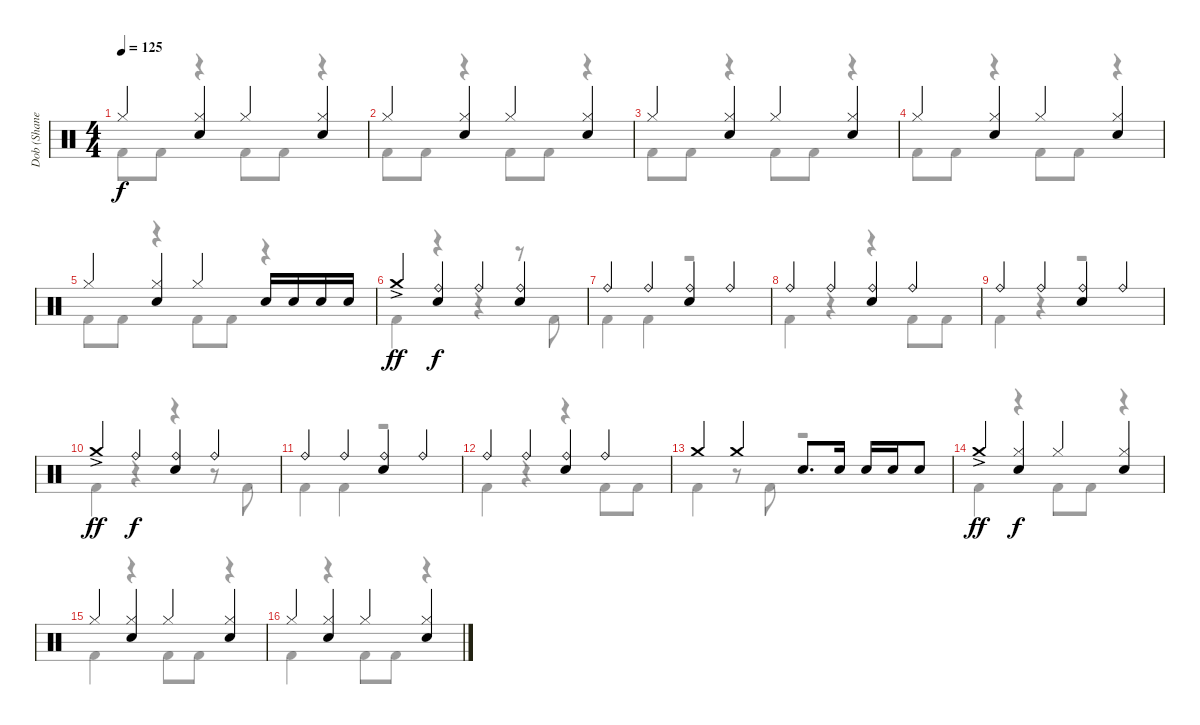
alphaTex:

\track ("Dob (Shane Gaalaas)" "Dob (Shane") {instrument percussion}
\staff {score}
\articulation defaults
\voice
\ts (4 4)
\tempo 125
\clef neutral
\ks c "Hi-Hat (closed)".4{dy f}
("Hi-Hat (closed)" "Electric Snare (hit)").4 "Hi-Hat (closed)".4 ("Hi-Hat (closed)" "Electric Snare (hit)").4 |
"Hi-Hat (closed)".4 ("Hi-Hat (closed)" "Electric Snare (hit)").4 "Hi-Hat (closed)".4 ("Hi-Hat (closed)" "Electric Snare (hit)").4 |
"Hi-Hat (closed)".4 ("Hi-Hat (closed)" "Electric Snare (hit)").4 "Hi-Hat (closed)".4 ("Hi-Hat (closed)" "Electric Snare (hit)").4 |
"Hi-Hat (closed)".4 ("Hi-Hat (closed)" "Electric Snare (hit)").4 "Hi-Hat (closed)".4 ("Hi-Hat (closed)" "Electric Snare (hit)").4 |
"Hi-Hat (closed)".4 ("Hi-Hat (closed)" "Electric Snare (hit)").4 "Hi-Hat (closed)".4 "Electric Snare (hit)".16 "Electric Snare (hit)".16 "Electric Snare (hit)".16 "Electric Snare (hit)".16 |
"Crash medium (hit)"{ac}.4{dy ff} ("Ride (bell)" "Electric Snare (hit)").4{dy f} "Ride (bell)".4 ("Ride (bell)" "Electric Snare (hit)").4 |
"Ride (bell)".4 "Ride (bell)".4 ("Ride (bell)" "Electric Snare (hit)").4 "Ride (bell)".4 |
"Ride (bell)".4 "Ride (bell)".4 ("Ride (bell)" "Electric Snare (hit)").4 "Ride (bell)".4 |
"Ride (bell)".4 "Ride (bell)".4 ("Ride (bell)" "Electric Snare (hit)").4 "Ride (bell)".4 |
"Crash medium (hit)"{ac}.4{dy ff} "Ride (bell)".4{dy f} ("Ride (bell)" "Electric Snare (hit)").4 "Ride (bell)".4 |
"Ride (bell)".4 "Ride (bell)".4 ("Ride (bell)" "Electric Snare (hit)").4 "Ride (bell)".4 |
"Ride (bell)".4 "Ride (bell)".4 ("Ride (bell)" "Electric Snare (hit)").4 "Ride (bell)".4 |
"Crash medium (hit)".4 "Crash medium (hit)".4 "Electric Snare (hit)".8{d} "Electric Snare (hit)".16 "Electric Snare (hit)".16 "Electric Snare (hit)".16 "Electric Snare (hit)".8 |
"Crash medium (hit)"{ac}.4{dy ff} ("Hi-Hat (closed)" "Electric Snare (hit)").4{dy f} "Hi-Hat (closed)".4 ("Hi-Hat (closed)" "Electric Snare (hit)").4 |
"Hi-Hat (closed)".4 ("Hi-Hat (closed)" "Electric Snare (hit)").4 "Hi-Hat (closed)".4 ("Hi-Hat (closed)" "Electric Snare (hit)").4 |
"Hi-Hat (closed)".4 ("Hi-Hat (closed)" "Electric Snare (hit)").4 "Hi-Hat (closed)".4 ("Hi-Hat (closed)" "Electric Snare (hit)").4
\voice
\clef neutral
\ottava regular
\simile none
\ks c "Kick (hit) 2".8{dy f} "Kick (hit) 2".8
r.4 "Kick (hit) 2".8 "Kick (hit) 2".8 r.4 |
"Kick (hit) 2".8 "Kick (hit) 2".8 r.4 "Kick (hit) 2".8 "Kick (hit) 2".8 r.4 |
"Kick (hit) 2".8 "Kick (hit) 2".8 r.4 "Kick (hit) 2".8 "Kick (hit) 2".8 r.4 |
"Kick (hit) 2".8 "Kick (hit) 2".8 r.4 "Kick (hit) 2".8 "Kick (hit) 2".8 r.4 |
"Kick (hit) 2".8 "Kick (hit) 2".8 r.4 "Kick (hit) 2".8 "Kick (hit) 2".8 r.4 |
"Kick (hit) 2".4 r.4 r.4 r.8 "Kick (hit) 2".8 |
"Kick (hit) 2".4 "Kick (hit) 2".4 r.2 |
"Kick (hit) 2".4 r.4 r.4 "Kick (hit) 2".8 "Kick (hit) 2".8 |
"Kick (hit) 2".4 r.4 r.2 |
"Kick (hit) 2".4 r.4 r.4 r.8 "Kick (hit) 2".8 |
"Kick (hit) 2".4 "Kick (hit) 2".4 r.2 |
"Kick (hit) 2".4 r.4 r.4 "Kick (hit) 2".8 "Kick (hit) 2".8 |
"Kick (hit) 2".4 r.8 "Kick (hit) 2".8 r.2 |
"Kick (hit) 2".4 r.4 "Kick (hit) 2".8 "Kick (hit) 2".8 r.4 |
"Kick (hit) 2".4 r.4 "Kick (hit) 2".8 "Kick (hit) 2".8 r.4 |
"Kick (hit) 2".4 r.4 "Kick (hit) 2".8 "Kick (hit) 2".8 r.4
